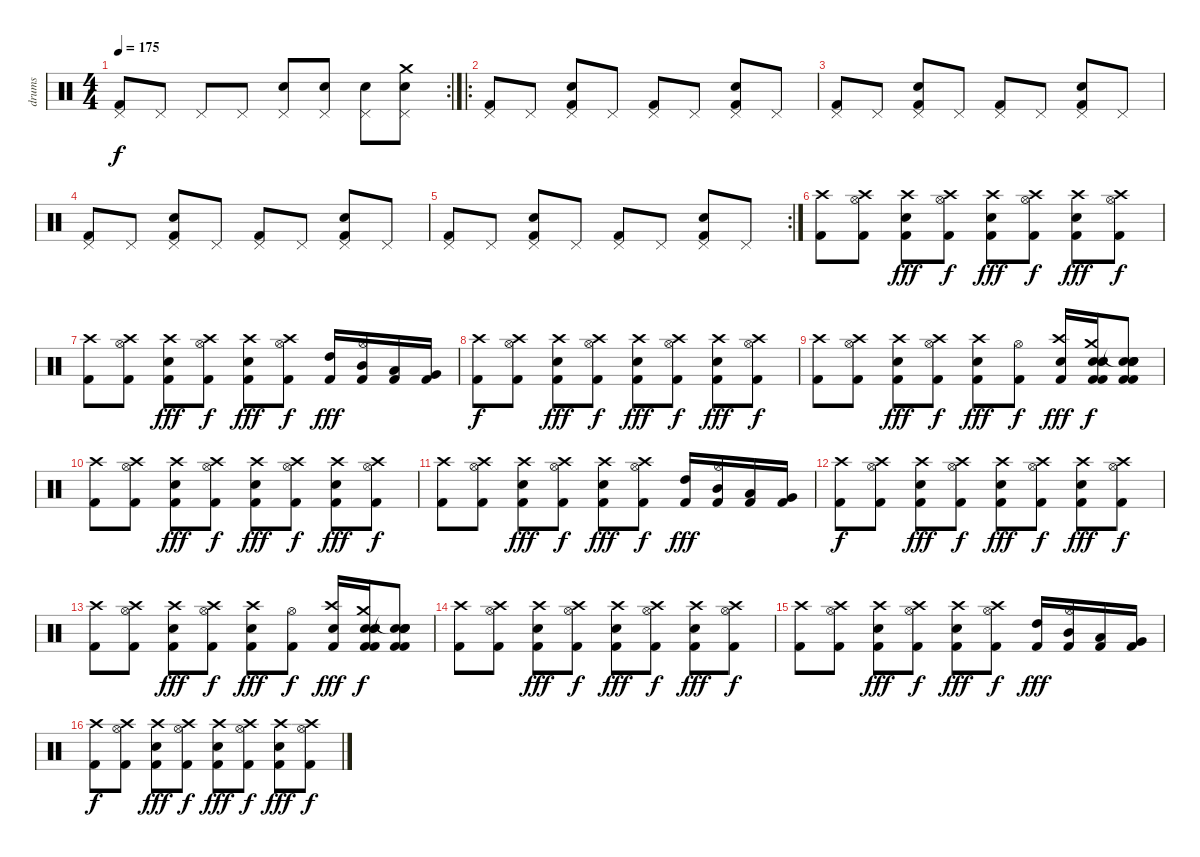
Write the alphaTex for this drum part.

\track ("drums" "drums") {instrument percussion}
\staff {score}
\articulation defaults
\rc 2
\ts (4 4)
\tempo 175
\clef neutral
\ks c
("Kick (hit) 2" "Pedal Hi-Hat (hit)").8{dy f} "Pedal Hi-Hat (hit)".8 "Pedal Hi-Hat (hit)".8 "Pedal Hi-Hat (hit)".8 ("Snare (hit) 2" "Pedal Hi-Hat (hit)").8 ("Snare (hit) 2" "Pedal Hi-Hat (hit)").8 ("Snare (hit) 2" "Pedal Hi-Hat (hit)").8 ("Crash medium (hit)" "Snare (hit) 2" "Pedal Hi-Hat (hit)").8 |
\ro
("Kick (hit) 2" "Pedal Hi-Hat (hit)").8 "Pedal Hi-Hat (hit)".8 ("Snare (hit) 2" "Kick (hit) 2" "Pedal Hi-Hat (hit)").8 "Pedal Hi-Hat (hit)".8 ("Kick (hit) 2" "Pedal Hi-Hat (hit)").8 "Pedal Hi-Hat (hit)".8 ("Snare (hit) 2" "Kick (hit) 2" "Pedal Hi-Hat (hit)").8 "Pedal Hi-Hat (hit)".8 |
("Kick (hit) 2" "Pedal Hi-Hat (hit)").8 "Pedal Hi-Hat (hit)".8 ("Snare (hit) 2" "Kick (hit) 2" "Pedal Hi-Hat (hit)").8 "Pedal Hi-Hat (hit)".8 ("Kick (hit) 2" "Pedal Hi-Hat (hit)").8 "Pedal Hi-Hat (hit)".8 ("Snare (hit) 2" "Kick (hit) 2" "Pedal Hi-Hat (hit)").8 "Pedal Hi-Hat (hit)".8 |
("Kick (hit) 2" "Pedal Hi-Hat (hit)").8 "Pedal Hi-Hat (hit)".8 ("Snare (hit) 2" "Kick (hit) 2" "Pedal Hi-Hat (hit)").8 "Pedal Hi-Hat (hit)".8 ("Kick (hit) 2" "Pedal Hi-Hat (hit)").8 "Pedal Hi-Hat (hit)".8 ("Snare (hit) 2" "Kick (hit) 2" "Pedal Hi-Hat (hit)").8 "Pedal Hi-Hat (hit)".8 |
\rc 2
("Kick (hit) 2" "Pedal Hi-Hat (hit)").8 "Pedal Hi-Hat (hit)".8 ("Snare (hit) 2" "Kick (hit) 2" "Pedal Hi-Hat (hit)").8 "Pedal Hi-Hat (hit)".8 ("Kick (hit) 2" "Pedal Hi-Hat (hit)").8 "Pedal Hi-Hat (hit)".8 ("Snare (hit) 2" "Kick (hit) 2" "Pedal Hi-Hat (hit)").8 "Pedal Hi-Hat (hit)".8 |
("Crash high (hit)" "Kick (hit) 2").8{volume 13} ("Crash high (hit)" "Hi-Hat (open)" "Kick (hit) 2").8 ("Crash high (hit)" "Kick (hit) 2" "Electric Snare (hit)").8{dy fff} ("Crash high (hit)" "Hi-Hat (open)" "Kick (hit) 2").8{dy f} ("Crash high (hit)" "Kick (hit) 2" "Electric Snare (hit)").8{dy fff} ("Crash high (hit)" "Hi-Hat (open)" "Kick (hit) 2").8{dy f} ("Crash high (hit)" "Kick (hit) 2" "Electric Snare (hit)").8{dy fff} ("Crash high (hit)" "Hi-Hat (open)" "Kick (hit) 2").8{dy f} |
("Crash high (hit)" "Kick (hit) 2").8 ("Crash high (hit)" "Hi-Hat (open)" "Kick (hit) 2").8 ("Crash high (hit)" "Kick (hit) 2" "Electric Snare (hit)").8{dy fff} ("Crash high (hit)" "Hi-Hat (open)" "Kick (hit) 2").8{dy f} ("Crash high (hit)" "Kick (hit) 2" "Electric Snare (hit)").8{dy fff} ("Crash high (hit)" "Hi-Hat (open)" "Kick (hit) 2").8{dy f} ("High Tom (hit)" "Kick (hit) 2").16{dy fff} ("Mid Tom (hit)" "Hi-Hat (open)" "Kick (hit) 2").16 ("Low Tom (hit)" "Kick (hit) 2").16 ("Very Low Tom (hit)" "Kick (hit) 2").16 |
("Crash high (hit)" "Kick (hit) 2").8{dy f} ("Crash high (hit)" "Hi-Hat (open)" "Kick (hit) 2").8 ("Crash high (hit)" "Kick (hit) 2" "Electric Snare (hit)").8{dy fff} ("Crash high (hit)" "Hi-Hat (open)" "Kick (hit) 2").8{dy f} ("Crash high (hit)" "Kick (hit) 2" "Electric Snare (hit)").8{dy fff} ("Crash high (hit)" "Hi-Hat (open)" "Kick (hit) 2").8{dy f} ("Crash high (hit)" "Kick (hit) 2" "Electric Snare (hit)").8{dy fff} ("Crash high (hit)" "Hi-Hat (open)" "Kick (hit) 2").8{dy f} |
("Crash high (hit)" "Kick (hit) 2").8 ("Crash high (hit)" "Hi-Hat (open)" "Kick (hit) 2").8 ("Crash high (hit)" "Kick (hit) 2" "Electric Snare (hit)").8{dy fff} ("Crash high (hit)" "Hi-Hat (open)" "Kick (hit) 2").8{dy f} ("Crash high (hit)" "Kick (hit) 2" "Electric Snare (hit)").8{dy fff} ("Hi-Hat (open)" "Kick (hit) 2").8{dy f} ("Crash high (hit)" "Kick (hit) 2" "Electric Snare (hit)").16{dy fff} ("Crash medium (hit)" "Electric Snare (hit)" "Kick (hit) 2" "Electric Snare (hit)" "Kick (hit) 2" "Electric Snare (hit)").16{dy f} ("Snare (hit)"{t} "Electric Snare (hit)" "Kick (hit) 2" "Electric Snare (hit)" "Kick (hit) 2" "Electric Snare (hit)").8 |
("Crash high (hit)" "Kick (hit) 2").8{volume 13} ("Crash high (hit)" "Hi-Hat (open)" "Kick (hit) 2").8 ("Crash high (hit)" "Kick (hit) 2" "Electric Snare (hit)").8{dy fff} ("Crash high (hit)" "Hi-Hat (open)" "Kick (hit) 2").8{dy f} ("Crash high (hit)" "Kick (hit) 2" "Electric Snare (hit)").8{dy fff} ("Crash high (hit)" "Hi-Hat (open)" "Kick (hit) 2").8{dy f} ("Crash high (hit)" "Kick (hit) 2" "Electric Snare (hit)").8{dy fff} ("Crash high (hit)" "Hi-Hat (open)" "Kick (hit) 2").8{dy f} |
("Crash high (hit)" "Kick (hit) 2").8 ("Crash high (hit)" "Hi-Hat (open)" "Kick (hit) 2").8 ("Crash high (hit)" "Kick (hit) 2" "Electric Snare (hit)").8{dy fff} ("Crash high (hit)" "Hi-Hat (open)" "Kick (hit) 2").8{dy f} ("Crash high (hit)" "Kick (hit) 2" "Electric Snare (hit)").8{dy fff} ("Crash high (hit)" "Hi-Hat (open)" "Kick (hit) 2").8{dy f} ("High Tom (hit)" "Kick (hit) 2").16{dy fff} ("Mid Tom (hit)" "Hi-Hat (open)" "Kick (hit) 2").16 ("Low Tom (hit)" "Kick (hit) 2").16 ("Very Low Tom (hit)" "Kick (hit) 2").16 |
("Crash high (hit)" "Kick (hit) 2").8{dy f} ("Crash high (hit)" "Hi-Hat (open)" "Kick (hit) 2").8 ("Crash high (hit)" "Kick (hit) 2" "Electric Snare (hit)").8{dy fff} ("Crash high (hit)" "Hi-Hat (open)" "Kick (hit) 2").8{dy f} ("Crash high (hit)" "Kick (hit) 2" "Electric Snare (hit)").8{dy fff} ("Crash high (hit)" "Hi-Hat (open)" "Kick (hit) 2").8{dy f} ("Crash high (hit)" "Kick (hit) 2" "Electric Snare (hit)").8{dy fff} ("Crash high (hit)" "Hi-Hat (open)" "Kick (hit) 2").8{dy f} |
("Crash high (hit)" "Kick (hit) 2").8 ("Crash high (hit)" "Hi-Hat (open)" "Kick (hit) 2").8 ("Crash high (hit)" "Kick (hit) 2" "Electric Snare (hit)").8{dy fff} ("Crash high (hit)" "Hi-Hat (open)" "Kick (hit) 2").8{dy f} ("Crash high (hit)" "Kick (hit) 2" "Electric Snare (hit)").8{dy fff} ("Hi-Hat (open)" "Kick (hit) 2").8{dy f} ("Crash high (hit)" "Kick (hit) 2" "Electric Snare (hit)").16{dy fff} ("Crash medium (hit)" "Electric Snare (hit)" "Kick (hit) 2" "Electric Snare (hit)" "Kick (hit) 2" "Electric Snare (hit)").16{dy f} ("Snare (hit)"{t} "Electric Snare (hit)" "Kick (hit) 2" "Electric Snare (hit)" "Kick (hit) 2" "Electric Snare (hit)").8 |
("Crash high (hit)" "Kick (hit) 2").8{volume 13} ("Crash high (hit)" "Hi-Hat (open)" "Kick (hit) 2").8 ("Crash high (hit)" "Kick (hit) 2" "Electric Snare (hit)").8{dy fff} ("Crash high (hit)" "Hi-Hat (open)" "Kick (hit) 2").8{dy f} ("Crash high (hit)" "Kick (hit) 2" "Electric Snare (hit)").8{dy fff} ("Crash high (hit)" "Hi-Hat (open)" "Kick (hit) 2").8{dy f} ("Crash high (hit)" "Kick (hit) 2" "Electric Snare (hit)").8{dy fff} ("Crash high (hit)" "Hi-Hat (open)" "Kick (hit) 2").8{dy f} |
("Crash high (hit)" "Kick (hit) 2").8 ("Crash high (hit)" "Hi-Hat (open)" "Kick (hit) 2").8 ("Crash high (hit)" "Kick (hit) 2" "Electric Snare (hit)").8{dy fff} ("Crash high (hit)" "Hi-Hat (open)" "Kick (hit) 2").8{dy f} ("Crash high (hit)" "Kick (hit) 2" "Electric Snare (hit)").8{dy fff} ("Crash high (hit)" "Hi-Hat (open)" "Kick (hit) 2").8{dy f} ("High Tom (hit)" "Kick (hit) 2").16{dy fff} ("Mid Tom (hit)" "Hi-Hat (open)" "Kick (hit) 2").16 ("Low Tom (hit)" "Kick (hit) 2").16 ("Very Low Tom (hit)" "Kick (hit) 2").16 |
("Crash high (hit)" "Kick (hit) 2").8{dy f} ("Crash high (hit)" "Hi-Hat (open)" "Kick (hit) 2").8 ("Crash high (hit)" "Kick (hit) 2" "Electric Snare (hit)").8{dy fff} ("Crash high (hit)" "Hi-Hat (open)" "Kick (hit) 2").8{dy f} ("Crash high (hit)" "Kick (hit) 2" "Electric Snare (hit)").8{dy fff} ("Crash high (hit)" "Hi-Hat (open)" "Kick (hit) 2").8{dy f} ("Crash high (hit)" "Kick (hit) 2" "Electric Snare (hit)").8{dy fff} ("Crash high (hit)" "Hi-Hat (open)" "Kick (hit) 2").8{dy f}
